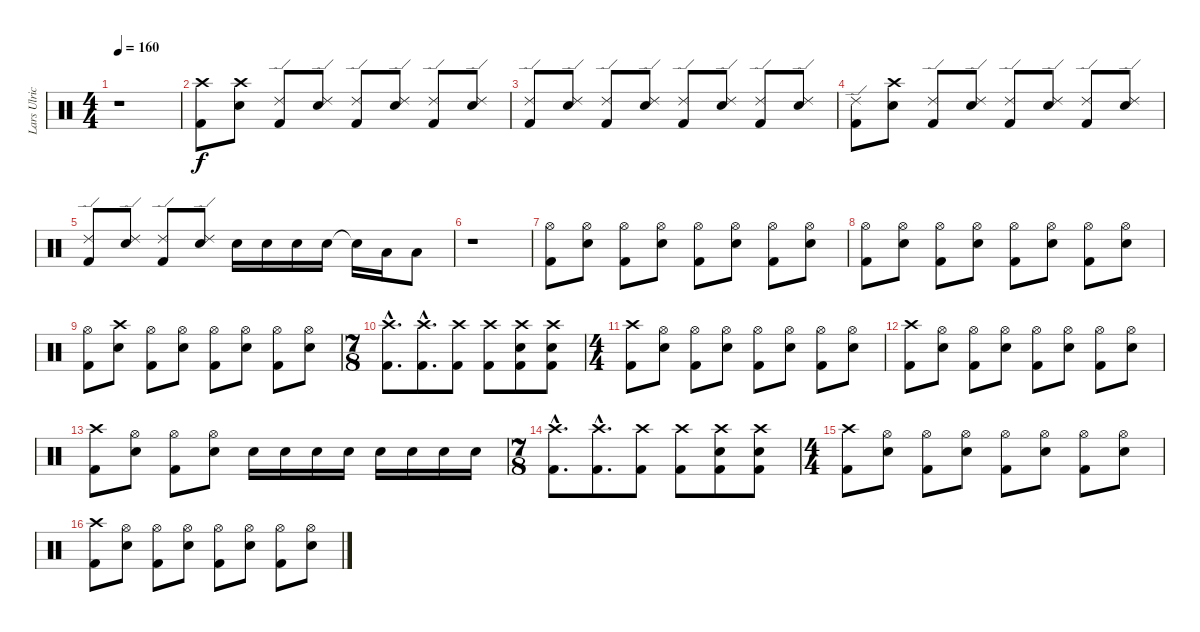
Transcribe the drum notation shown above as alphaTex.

\track ("Lars Ulrich (Drums)" "Lars Ulric") {instrument percussion}
\staff {score}
\articulation defaults
\ts (4 4)
\tempo 160
\clef neutral
\ks c
r.1{dy f} |
("Crash high (hit)" "Kick (hit) 2").8 ("Crash high (hit)" "Electric Snare (hit)").8 ("Ride (edge) 2" "Kick (hit) 2").8 ("Ride (edge) 2" "Electric Snare (hit)").8 ("Ride (edge) 2" "Kick (hit) 2").8 ("Ride (edge) 2" "Electric Snare (hit)").8 ("Ride (edge) 2" "Kick (hit) 2").8 ("Ride (edge) 2" "Electric Snare (hit)").8 |
("Ride (edge) 2" "Kick (hit) 2").8 ("Ride (edge) 2" "Electric Snare (hit)").8 ("Ride (edge) 2" "Kick (hit) 2").8 ("Ride (edge) 2" "Electric Snare (hit)").8 ("Ride (edge) 2" "Kick (hit) 2").8 ("Ride (edge) 2" "Electric Snare (hit)").8 ("Ride (edge) 2" "Kick (hit) 2").8 ("Ride (edge) 2" "Electric Snare (hit)").8 |
("Ride (edge) 2" "Kick (hit) 2").8 ("Crash high (hit)" "Electric Snare (hit)").8 ("Ride (edge) 2" "Kick (hit) 2").8 ("Ride (edge) 2" "Electric Snare (hit)").8 ("Ride (edge) 2" "Kick (hit) 2").8 ("Ride (edge) 2" "Electric Snare (hit)").8 ("Ride (edge) 2" "Kick (hit) 2").8 ("Ride (edge) 2" "Electric Snare (hit)").8 |
("Ride (edge) 2" "Kick (hit) 2").8 ("Ride (edge) 2" "Electric Snare (hit)").8 ("Ride (edge) 2" "Kick (hit) 2").8 ("Ride (edge) 2" "Electric Snare (hit)").8 "Electric Snare (hit)".16 "Electric Snare (hit)".16 "Electric Snare (hit)".16 "Electric Snare (hit)".16 "Snare (hit)"{t}.16 "Low Tom (hit)".16 "Low Tom (hit)".8 |
r.1 |
("Hi-Hat (open)" "Kick (hit) 2").8 ("Hi-Hat (open)" "Electric Snare (hit)").8 ("Hi-Hat (open)" "Kick (hit) 2").8 ("Hi-Hat (open)" "Electric Snare (hit)").8 ("Hi-Hat (open)" "Kick (hit) 2").8 ("Hi-Hat (open)" "Electric Snare (hit)").8 ("Hi-Hat (open)" "Kick (hit) 2").8 ("Hi-Hat (open)" "Electric Snare (hit)").8 |
("Hi-Hat (open)" "Kick (hit) 2").8 ("Hi-Hat (open)" "Electric Snare (hit)").8 ("Hi-Hat (open)" "Kick (hit) 2").8 ("Hi-Hat (open)" "Electric Snare (hit)").8 ("Hi-Hat (open)" "Kick (hit) 2").8 ("Hi-Hat (open)" "Electric Snare (hit)").8 ("Hi-Hat (open)" "Kick (hit) 2").8 ("Hi-Hat (open)" "Electric Snare (hit)").8 |
("Hi-Hat (open)" "Kick (hit) 2").8 ("Crash high (hit)" "Electric Snare (hit)").8 ("Hi-Hat (open)" "Kick (hit) 2").8 ("Hi-Hat (open)" "Electric Snare (hit)").8 ("Hi-Hat (open)" "Kick (hit) 2").8 ("Hi-Hat (open)" "Electric Snare (hit)").8 ("Hi-Hat (open)" "Kick (hit) 2").8 ("Hi-Hat (open)" "Electric Snare (hit)").8 |
\ts (7 8)
("Crash high (hit)"{hac} "Kick (hit) 2"{hac}).8{d} ("Crash high (hit)"{hac} "Kick (hit) 2"{hac}).8{d} ("Crash high (hit)" "Kick (hit) 2").8 ("Crash high (hit)" "Kick (hit) 2").8 ("Crash high (hit)" "Electric Snare (hit)" "Kick (hit) 2").8 ("Crash high (hit)" "Electric Snare (hit)" "Kick (hit) 2").8 |
\ts (4 4)
("Crash high (hit)" "Kick (hit) 2").8 ("Hi-Hat (open)" "Electric Snare (hit)").8 ("Hi-Hat (open)" "Kick (hit) 2").8 ("Hi-Hat (open)" "Electric Snare (hit)").8 ("Hi-Hat (open)" "Kick (hit) 2").8 ("Hi-Hat (open)" "Electric Snare (hit)").8 ("Hi-Hat (open)" "Kick (hit) 2").8 ("Hi-Hat (open)" "Electric Snare (hit)").8 |
("Crash high (hit)" "Kick (hit) 2").8 ("Hi-Hat (open)" "Electric Snare (hit)").8 ("Hi-Hat (open)" "Kick (hit) 2").8 ("Hi-Hat (open)" "Electric Snare (hit)").8 ("Hi-Hat (open)" "Kick (hit) 2").8 ("Hi-Hat (open)" "Electric Snare (hit)").8 ("Hi-Hat (open)" "Kick (hit) 2").8 ("Hi-Hat (open)" "Electric Snare (hit)").8 |
("Crash high (hit)" "Kick (hit) 2").8 ("Hi-Hat (open)" "Electric Snare (hit)").8 ("Hi-Hat (open)" "Kick (hit) 2").8 ("Hi-Hat (open)" "Electric Snare (hit)").8 "Electric Snare (hit)".16 "Electric Snare (hit)".16 "Electric Snare (hit)".16 "Electric Snare (hit)".16 "Electric Snare (hit)".16 "Electric Snare (hit)".16 "Electric Snare (hit)".16 "Electric Snare (hit)".16 |
\ts (7 8)
("Crash high (hit)"{hac} "Kick (hit) 2"{hac}).8{d} ("Crash high (hit)"{hac} "Kick (hit) 2"{hac}).8{d} ("Crash high (hit)" "Kick (hit) 2").8 ("Crash high (hit)" "Kick (hit) 2").8 ("Crash high (hit)" "Electric Snare (hit)" "Kick (hit) 2").8 ("Crash high (hit)" "Electric Snare (hit)" "Kick (hit) 2").8 |
\ts (4 4)
("Crash high (hit)" "Kick (hit) 2").8 ("Hi-Hat (open)" "Electric Snare (hit)").8 ("Hi-Hat (open)" "Kick (hit) 2").8 ("Hi-Hat (open)" "Electric Snare (hit)").8 ("Hi-Hat (open)" "Kick (hit) 2").8 ("Hi-Hat (open)" "Electric Snare (hit)").8 ("Hi-Hat (open)" "Kick (hit) 2").8 ("Hi-Hat (open)" "Electric Snare (hit)").8 |
("Crash high (hit)" "Kick (hit) 2").8 ("Hi-Hat (open)" "Electric Snare (hit)").8 ("Hi-Hat (open)" "Kick (hit) 2").8 ("Hi-Hat (open)" "Electric Snare (hit)").8 ("Hi-Hat (open)" "Kick (hit) 2").8 ("Hi-Hat (open)" "Electric Snare (hit)").8 ("Hi-Hat (open)" "Kick (hit) 2").8 ("Hi-Hat (open)" "Electric Snare (hit)").8
